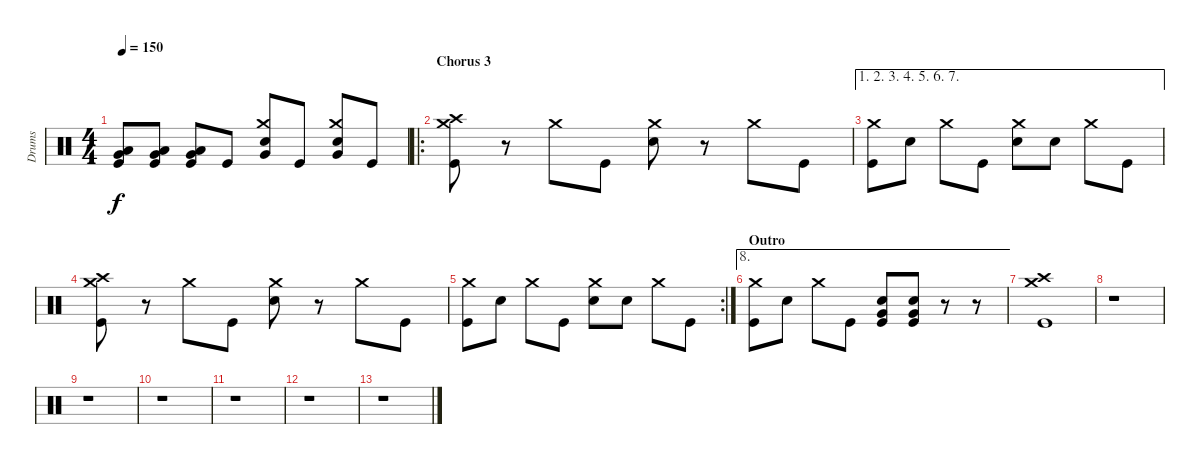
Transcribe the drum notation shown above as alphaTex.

\track ("Drums" "Drums") {instrument percussion}
\staff {score}
\articulation defaults
\ts (4 4)
\tempo 150
\clef neutral
\ks c
("Low Floor Tom (hit)" "Very Low Tom (hit)" "Kick (hit)").8{dy f} ("Low Floor Tom (hit)" "Very Low Tom (hit)" "Kick (hit)").8 ("Low Floor Tom (hit)" "Very Low Tom (hit)" "Kick (hit)").8 "Kick (hit)".8 ("Crash medium (hit)" "Electric Snare (hit)" "Very Low Tom (hit)").8 "Kick (hit)".8 ("Crash medium (hit)" "Electric Snare (hit)" "Very Low Tom (hit)").8 "Kick (hit)".8 |
\ro
\section ("" "Chorus 3")
("Crash medium (hit)" "Crash high (hit)" "Kick (hit)").8 r.8 "Crash medium (hit)".8 "Kick (hit)".8 ("Crash medium (hit)" "Electric Snare (hit)").8 r.8 "Crash medium (hit)".8 "Kick (hit)".8 |
\ae (1 2 3 4 5 6 7)
("Crash medium (hit)" "Kick (hit)").8 "Electric Snare (hit)".8 "Crash medium (hit)".8 "Kick (hit)".8 ("Crash medium (hit)" "Electric Snare (hit)").8 "Electric Snare (hit)".8 "Crash medium (hit)".8 "Kick (hit)".8 |
("Crash medium (hit)" "Crash high (hit)" "Kick (hit)").8 r.8 "Crash medium (hit)".8 "Kick (hit)".8 ("Crash medium (hit)" "Electric Snare (hit)").8 r.8 "Crash medium (hit)".8 "Kick (hit)".8 |
\rc 2
("Crash medium (hit)" "Kick (hit)").8 "Electric Snare (hit)".8 "Crash medium (hit)".8 "Kick (hit)".8 ("Crash medium (hit)" "Electric Snare (hit)").8 "Electric Snare (hit)".8 "Crash medium (hit)".8 "Kick (hit)".8 |
\ae 8
\section ("" "Outro")
("Crash medium (hit)" "Kick (hit)").8 "Electric Snare (hit)".8 "Crash medium (hit)".8 "Kick (hit)".8 ("Electric Snare (hit)" "Very Low Tom (hit)" "Kick (hit)").8 ("Electric Snare (hit)" "Very Low Tom (hit)" "Kick (hit)").8 r.8 r.8 |
("Crash medium (hit)" "Crash high (hit)" "Kick (hit)").1 |
r.1 |
r.1 |
r.1 |
r.1 |
r.1 |
r.1
